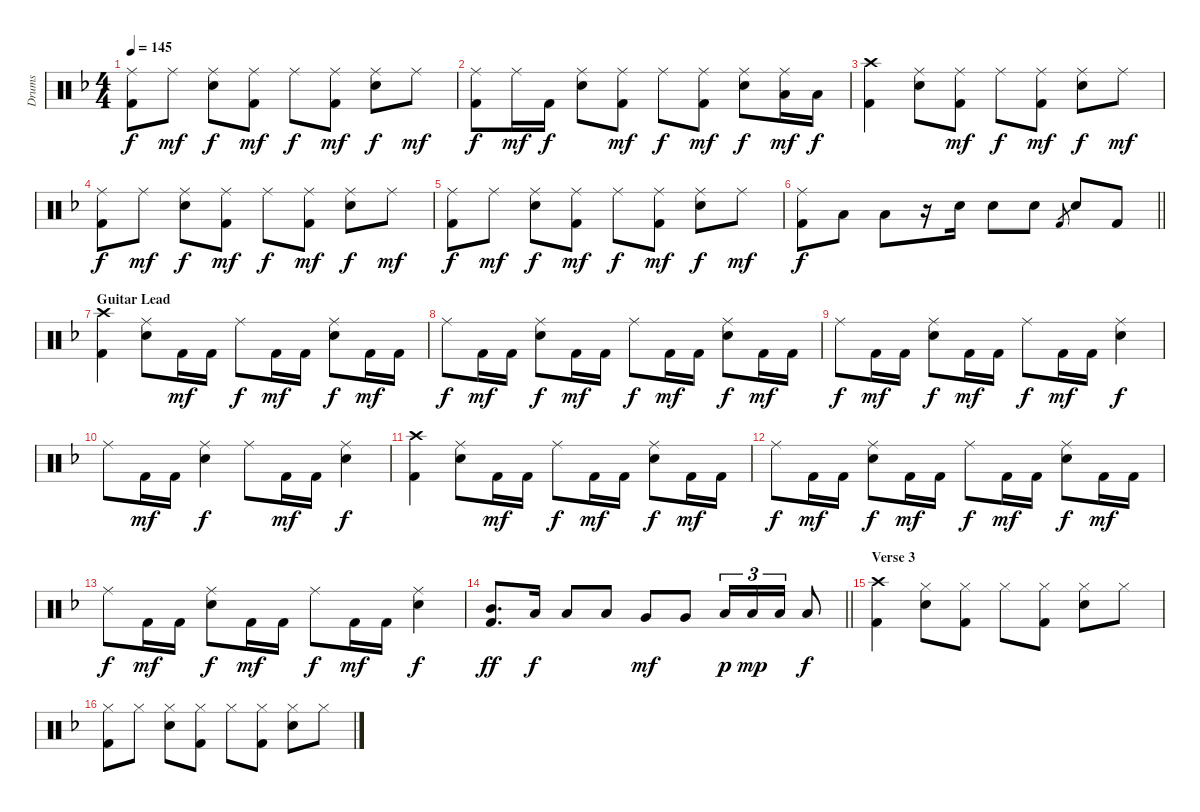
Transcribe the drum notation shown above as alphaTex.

\track ("Drums" "Drums") {instrument percussion}
\staff {score}
\articulation defaults
\ts (4 4)
\tempo 145
\clef neutral
\ks f
("Ride (middle)" "Kick (hit) 2").8{dy f} "Ride (middle)".8{dy mf} ("Ride (middle)" "Electric Snare (hit)").8{dy f} ("Ride (middle)" "Kick (hit) 2").8{dy mf} "Ride (middle)".8{dy f} ("Ride (middle)" "Kick (hit) 2").8{dy mf} ("Ride (middle)" "Electric Snare (hit)").8{dy f} "Ride (middle)".8{dy mf} |
("Ride (middle)" "Kick (hit) 2").8{dy f} "Ride (middle)".16{dy mf} "Kick (hit) 2".16{dy f} ("Ride (middle)" "Electric Snare (hit)").8 ("Ride (middle)" "Kick (hit) 2").8{dy mf} "Ride (middle)".8{dy f} ("Ride (middle)" "Kick (hit) 2").8{dy mf} ("Ride (middle)" "Electric Snare (hit)").8{dy f} ("Ride (middle)" "Low Tom (hit)").16{dy mf} "Low Tom (hit)".16{dy f} |
("Crash high (hit)" "Kick (hit) 2").4 ("Ride (middle)" "Electric Snare (hit)").8 ("Ride (middle)" "Kick (hit) 2").8{dy mf} "Ride (middle)".8{dy f} ("Ride (middle)" "Kick (hit) 2").8{dy mf} ("Ride (middle)" "Electric Snare (hit)").8{dy f} "Ride (middle)".8{dy mf} |
("Ride (middle)" "Kick (hit) 2").8{dy f} "Ride (middle)".8{dy mf} ("Ride (middle)" "Electric Snare (hit)").8{dy f} ("Ride (middle)" "Kick (hit) 2").8{dy mf} "Ride (middle)".8{dy f} ("Ride (middle)" "Kick (hit) 2").8{dy mf} ("Ride (middle)" "Electric Snare (hit)").8{dy f} "Ride (middle)".8{dy mf} |
("Ride (middle)" "Kick (hit) 2").8{dy f} "Ride (middle)".8{dy mf} ("Ride (middle)" "Electric Snare (hit)").8{dy f} ("Ride (middle)" "Kick (hit) 2").8{dy mf} "Ride (middle)".8{dy f} ("Ride (middle)" "Kick (hit) 2").8{dy mf} ("Ride (middle)" "Electric Snare (hit)").8{dy f} "Ride (middle)".8{dy mf} |
\barLineRight lightlight
("Ride (middle)" "Kick (hit) 2").8{dy f} "Low Tom (hit)".8 "Low Tom (hit)".8 r.16 "Electric Snare (hit)".16 "Electric Snare (hit)".8 "Electric Snare (hit)".8 "Kick (hit) 2".8{gr} "Electric Snare (hit)".8 "Kick (hit) 2".8 |
\section ("" "Guitar Lead")
("Crash high (hit)" "Kick (hit) 2").4 ("Ride (middle)" "Electric Snare (hit)").8 "Kick (hit) 2".16{dy mf} "Kick (hit) 2".16 "Ride (middle)".8{dy f} "Kick (hit) 2".16{dy mf} "Kick (hit) 2".16 ("Ride (middle)" "Electric Snare (hit)").8{dy f} "Kick (hit) 2".16{dy mf} "Kick (hit) 2".16 |
"Ride (middle)".8{dy f} "Kick (hit) 2".16{dy mf} "Kick (hit) 2".16 ("Ride (middle)" "Electric Snare (hit)").8{dy f} "Kick (hit) 2".16{dy mf} "Kick (hit) 2".16 "Ride (middle)".8{dy f} "Kick (hit) 2".16{dy mf} "Kick (hit) 2".16 ("Ride (middle)" "Electric Snare (hit)").8{dy f} "Kick (hit) 2".16{dy mf} "Kick (hit) 2".16 |
"Ride (middle)".8{dy f} "Kick (hit) 2".16{dy mf} "Kick (hit) 2".16 ("Ride (middle)" "Electric Snare (hit)").8{dy f} "Kick (hit) 2".16{dy mf} "Kick (hit) 2".16 "Ride (middle)".8{dy f} "Kick (hit) 2".16{dy mf} "Kick (hit) 2".16 ("Ride (middle)" "Electric Snare (hit)").4{dy f} |
"Ride (middle)".8 "Kick (hit) 2".16{dy mf} "Kick (hit) 2".16 ("Ride (middle)" "Electric Snare (hit)").4{dy f} "Ride (middle)".8 "Kick (hit) 2".16{dy mf} "Kick (hit) 2".16 ("Ride (middle)" "Electric Snare (hit)").4{dy f} |
("Crash high (hit)" "Kick (hit) 2").4 ("Ride (middle)" "Electric Snare (hit)").8 "Kick (hit) 2".16{dy mf} "Kick (hit) 2".16 "Ride (middle)".8{dy f} "Kick (hit) 2".16{dy mf} "Kick (hit) 2".16 ("Ride (middle)" "Electric Snare (hit)").8{dy f} "Kick (hit) 2".16{dy mf} "Kick (hit) 2".16 |
"Ride (middle)".8{dy f} "Kick (hit) 2".16{dy mf} "Kick (hit) 2".16 ("Ride (middle)" "Electric Snare (hit)").8{dy f} "Kick (hit) 2".16{dy mf} "Kick (hit) 2".16 "Ride (middle)".8{dy f} "Kick (hit) 2".16{dy mf} "Kick (hit) 2".16 ("Ride (middle)" "Electric Snare (hit)").8{dy f} "Kick (hit) 2".16{dy mf} "Kick (hit) 2".16 |
"Ride (middle)".8{dy f} "Kick (hit) 2".16{dy mf} "Kick (hit) 2".16 ("Ride (middle)" "Electric Snare (hit)").8{dy f} "Kick (hit) 2".16{dy mf} "Kick (hit) 2".16 "Ride (middle)".8{dy f} "Kick (hit) 2".16{dy mf} "Kick (hit) 2".16 ("Ride (middle)" "Electric Snare (hit)").4{dy f} |
\barLineRight lightlight
("Mid Tom (hit)" "Kick (hit) 2").8{d dy ff} "Low Tom (hit)".16{dy f} "Low Tom (hit)".8 "Low Tom (hit)".8 "Very Low Tom (hit)".8{dy mf} "Very Low Tom (hit)".8 "Low Tom (hit)".16{tu (3 2) dy p} "Low Tom (hit)".16{tu (3 2) dy mp} "Low Tom (hit)".16{tu (3 2)} "Low Tom (hit)".8{dy f} |
\section ("" "Verse 3")
("Crash high (hit)" "Kick (hit) 2").4 ("Hi-Hat (closed)" "Electric Snare (hit)").8 ("Hi-Hat (closed)" "Kick (hit) 2").8 "Hi-Hat (closed)".8 ("Hi-Hat (closed)" "Kick (hit) 2").8 ("Hi-Hat (closed)" "Electric Snare (hit)").8 "Hi-Hat (closed)".8 |
("Hi-Hat (closed)" "Kick (hit) 2").8 "Hi-Hat (closed)".8 ("Hi-Hat (closed)" "Electric Snare (hit)").8 ("Hi-Hat (closed)" "Kick (hit) 2").8 "Hi-Hat (closed)".8 ("Hi-Hat (closed)" "Kick (hit) 2").8 ("Hi-Hat (closed)" "Electric Snare (hit)").8 "Hi-Hat (closed)".8
